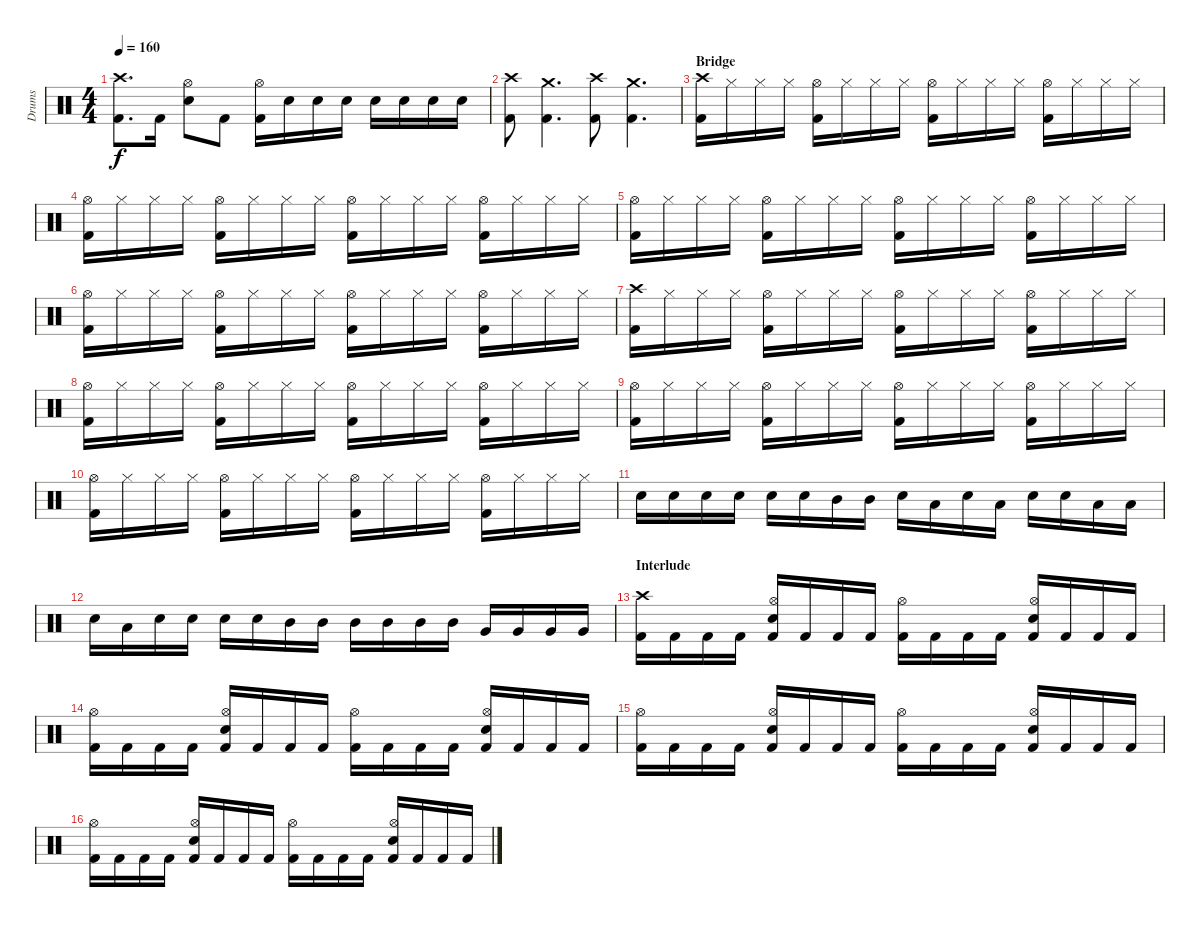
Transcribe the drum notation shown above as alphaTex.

\track ("Drums" "Drums") {instrument percussion}
\staff {score}
\articulation defaults
\ts (4 4)
\tempo 160
\clef neutral
\ks c
("Crash high (hit)" "Kick (hit) 2").8{d dy f} "Kick (hit) 2".16 ("Hi-Hat (open)" "Snare (hit) 2").8 "Kick (hit) 2".8 ("Hi-Hat (open)" "Kick (hit) 2").16 "Snare (hit) 2".16 "Snare (hit) 2".16 "Snare (hit) 2".16 "Snare (hit) 2".16 "Snare (hit) 2".16 "Snare (hit) 2".16 "Snare (hit) 2".16 |
("Crash high (hit)" "Kick (hit) 2").8 ("Crash medium (hit)" "Kick (hit) 2").4{d} ("Crash high (hit)" "Kick (hit) 2").8 ("Crash medium (hit)" "Kick (hit) 2").4{d} |
\section ("" "Bridge")
("Crash high (hit)" "Kick (hit) 2").16 "Hi-Hat (closed)".16 "Hi-Hat (closed)".16 "Hi-Hat (closed)".16 ("Hi-Hat (open)" "Kick (hit) 2").16 "Hi-Hat (closed)".16 "Hi-Hat (closed)".16 "Hi-Hat (closed)".16 ("Hi-Hat (open)" "Kick (hit) 2").16 "Hi-Hat (closed)".16 "Hi-Hat (closed)".16 "Hi-Hat (closed)".16 ("Hi-Hat (open)" "Kick (hit) 2").16 "Hi-Hat (closed)".16 "Hi-Hat (closed)".16 "Hi-Hat (closed)".16 |
("Hi-Hat (open)" "Kick (hit) 2").16 "Hi-Hat (closed)".16 "Hi-Hat (closed)".16 "Hi-Hat (closed)".16 ("Hi-Hat (open)" "Kick (hit) 2").16 "Hi-Hat (closed)".16 "Hi-Hat (closed)".16 "Hi-Hat (closed)".16 ("Hi-Hat (open)" "Kick (hit) 2").16 "Hi-Hat (closed)".16 "Hi-Hat (closed)".16 "Hi-Hat (closed)".16 ("Hi-Hat (open)" "Kick (hit) 2").16 "Hi-Hat (closed)".16 "Hi-Hat (closed)".16 "Hi-Hat (closed)".16 |
("Hi-Hat (open)" "Kick (hit) 2").16 "Hi-Hat (closed)".16 "Hi-Hat (closed)".16 "Hi-Hat (closed)".16 ("Hi-Hat (open)" "Kick (hit) 2").16 "Hi-Hat (closed)".16 "Hi-Hat (closed)".16 "Hi-Hat (closed)".16 ("Hi-Hat (open)" "Kick (hit) 2").16 "Hi-Hat (closed)".16 "Hi-Hat (closed)".16 "Hi-Hat (closed)".16 ("Hi-Hat (open)" "Kick (hit) 2").16 "Hi-Hat (closed)".16 "Hi-Hat (closed)".16 "Hi-Hat (closed)".16 |
("Hi-Hat (open)" "Kick (hit) 2").16 "Hi-Hat (closed)".16 "Hi-Hat (closed)".16 "Hi-Hat (closed)".16 ("Hi-Hat (open)" "Kick (hit) 2").16 "Hi-Hat (closed)".16 "Hi-Hat (closed)".16 "Hi-Hat (closed)".16 ("Hi-Hat (open)" "Kick (hit) 2").16 "Hi-Hat (closed)".16 "Hi-Hat (closed)".16 "Hi-Hat (closed)".16 ("Hi-Hat (open)" "Kick (hit) 2").16 "Hi-Hat (closed)".16 "Hi-Hat (closed)".16 "Hi-Hat (closed)".16 |
("Crash high (hit)" "Kick (hit) 2").16 "Hi-Hat (closed)".16 "Hi-Hat (closed)".16 "Hi-Hat (closed)".16 ("Hi-Hat (open)" "Kick (hit) 2").16 "Hi-Hat (closed)".16 "Hi-Hat (closed)".16 "Hi-Hat (closed)".16 ("Hi-Hat (open)" "Kick (hit) 2").16 "Hi-Hat (closed)".16 "Hi-Hat (closed)".16 "Hi-Hat (closed)".16 ("Hi-Hat (open)" "Kick (hit) 2").16 "Hi-Hat (closed)".16 "Hi-Hat (closed)".16 "Hi-Hat (closed)".16 |
("Hi-Hat (open)" "Kick (hit) 2").16 "Hi-Hat (closed)".16 "Hi-Hat (closed)".16 "Hi-Hat (closed)".16 ("Hi-Hat (open)" "Kick (hit) 2").16 "Hi-Hat (closed)".16 "Hi-Hat (closed)".16 "Hi-Hat (closed)".16 ("Hi-Hat (open)" "Kick (hit) 2").16 "Hi-Hat (closed)".16 "Hi-Hat (closed)".16 "Hi-Hat (closed)".16 ("Hi-Hat (open)" "Kick (hit) 2").16 "Hi-Hat (closed)".16 "Hi-Hat (closed)".16 "Hi-Hat (closed)".16 |
("Hi-Hat (open)" "Kick (hit) 2").16 "Hi-Hat (closed)".16 "Hi-Hat (closed)".16 "Hi-Hat (closed)".16 ("Hi-Hat (open)" "Kick (hit) 2").16 "Hi-Hat (closed)".16 "Hi-Hat (closed)".16 "Hi-Hat (closed)".16 ("Hi-Hat (open)" "Kick (hit) 2").16 "Hi-Hat (closed)".16 "Hi-Hat (closed)".16 "Hi-Hat (closed)".16 ("Hi-Hat (open)" "Kick (hit) 2").16 "Hi-Hat (closed)".16 "Hi-Hat (closed)".16 "Hi-Hat (closed)".16 |
("Hi-Hat (open)" "Kick (hit) 2").16 "Hi-Hat (closed)".16 "Hi-Hat (closed)".16 "Hi-Hat (closed)".16 ("Hi-Hat (open)" "Kick (hit) 2").16 "Hi-Hat (closed)".16 "Hi-Hat (closed)".16 "Hi-Hat (closed)".16 ("Hi-Hat (open)" "Kick (hit) 2").16 "Hi-Hat (closed)".16 "Hi-Hat (closed)".16 "Hi-Hat (closed)".16 ("Hi-Hat (open)" "Kick (hit) 2").16 "Hi-Hat (closed)".16 "Hi-Hat (closed)".16 "Hi-Hat (closed)".16 |
"Snare (hit) 2".16 "Snare (hit) 2".16 "Snare (hit) 2".16 "Snare (hit) 2".16 "Snare (hit) 2".16 "Snare (hit) 2".16 "Mid Tom (hit)".16 "Mid Tom (hit)".16 "Snare (hit) 2".16 "Low Tom (hit)".16 "Snare (hit) 2".16 "Low Tom (hit)".16 "Snare (hit) 2".16 "Snare (hit) 2".16 "Low Tom (hit)".16 "Low Tom (hit)".16 |
"Snare (hit) 2".16 "Low Tom (hit)".16 "Snare (hit) 2".16 "Snare (hit) 2".16 "Snare (hit) 2".16 "Snare (hit) 2".16 "Mid Tom (hit)".16 "Mid Tom (hit)".16 "Mid Tom (hit)".16 "Mid Tom (hit)".16 "Mid Tom (hit)".16 "Mid Tom (hit)".16 "Very Low Tom (hit)".16 "Very Low Tom (hit)".16 "Very Low Tom (hit)".16 "Very Low Tom (hit)".16 |
\section ("" "Interlude")
("Crash high (hit)" "Kick (hit) 2").16 "Kick (hit) 2".16 "Kick (hit) 2".16 "Kick (hit) 2".16 ("Hi-Hat (open)" "Snare (hit) 2" "Kick (hit) 2").16 "Kick (hit) 2".16 "Kick (hit) 2".16 "Kick (hit) 2".16 ("Hi-Hat (open)" "Kick (hit) 2").16 "Kick (hit) 2".16 "Kick (hit) 2".16 "Kick (hit) 2".16 ("Hi-Hat (open)" "Snare (hit) 2" "Kick (hit) 2").16 "Kick (hit) 2".16 "Kick (hit) 2".16 "Kick (hit) 2".16 |
("Hi-Hat (open)" "Kick (hit) 2").16 "Kick (hit) 2".16 "Kick (hit) 2".16 "Kick (hit) 2".16 ("Hi-Hat (open)" "Snare (hit) 2" "Kick (hit) 2").16 "Kick (hit) 2".16 "Kick (hit) 2".16 "Kick (hit) 2".16 ("Hi-Hat (open)" "Kick (hit) 2").16 "Kick (hit) 2".16 "Kick (hit) 2".16 "Kick (hit) 2".16 ("Hi-Hat (open)" "Snare (hit) 2" "Kick (hit) 2").16 "Kick (hit) 2".16 "Kick (hit) 2".16 "Kick (hit) 2".16 |
("Hi-Hat (open)" "Kick (hit) 2").16 "Kick (hit) 2".16 "Kick (hit) 2".16 "Kick (hit) 2".16 ("Hi-Hat (open)" "Snare (hit) 2" "Kick (hit) 2").16 "Kick (hit) 2".16 "Kick (hit) 2".16 "Kick (hit) 2".16 ("Hi-Hat (open)" "Kick (hit) 2").16 "Kick (hit) 2".16 "Kick (hit) 2".16 "Kick (hit) 2".16 ("Hi-Hat (open)" "Snare (hit) 2" "Kick (hit) 2").16 "Kick (hit) 2".16 "Kick (hit) 2".16 "Kick (hit) 2".16 |
("Hi-Hat (open)" "Kick (hit) 2").16 "Kick (hit) 2".16 "Kick (hit) 2".16 "Kick (hit) 2".16 ("Hi-Hat (open)" "Snare (hit) 2" "Kick (hit) 2").16 "Kick (hit) 2".16 "Kick (hit) 2".16 "Kick (hit) 2".16 ("Hi-Hat (open)" "Kick (hit) 2").16 "Kick (hit) 2".16 "Kick (hit) 2".16 "Kick (hit) 2".16 ("Hi-Hat (open)" "Snare (hit) 2" "Kick (hit) 2").16 "Kick (hit) 2".16 "Kick (hit) 2".16 "Kick (hit) 2".16
